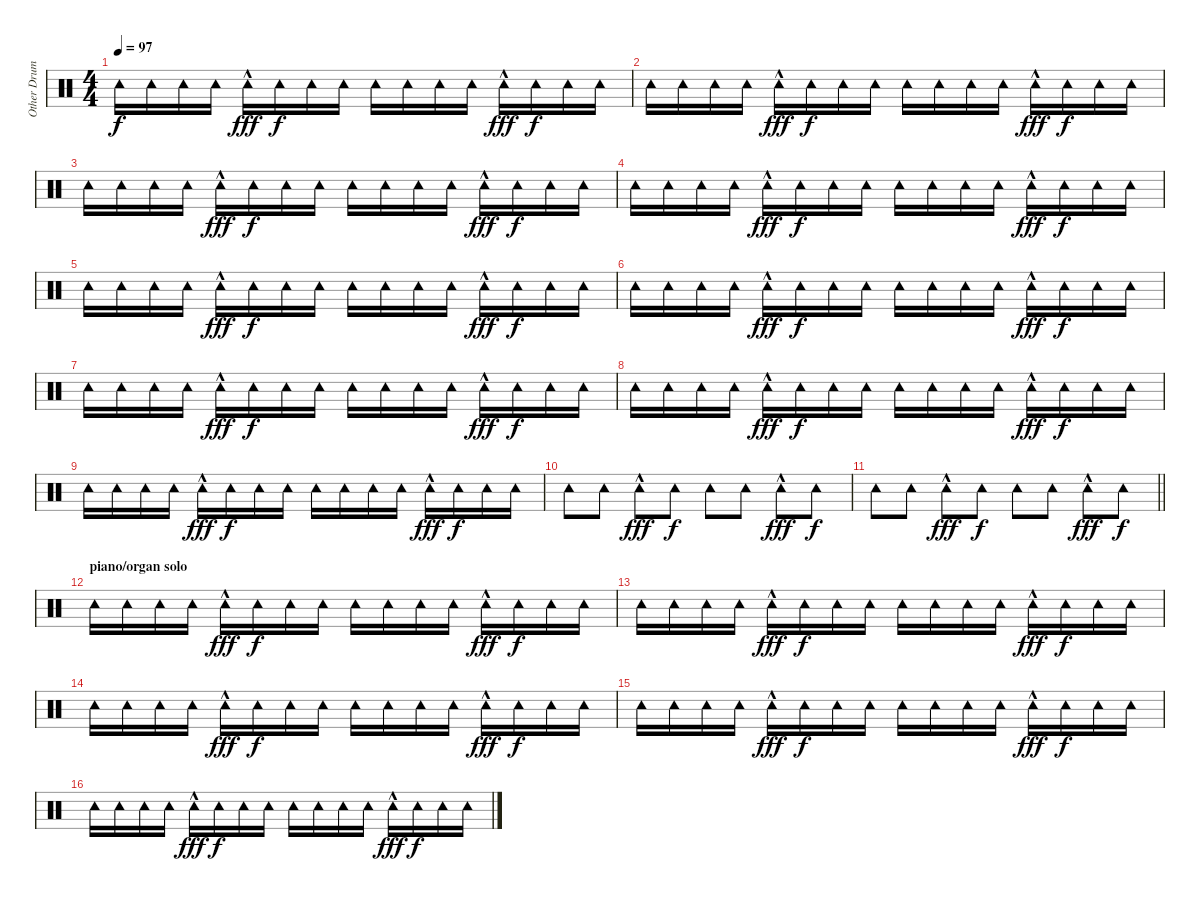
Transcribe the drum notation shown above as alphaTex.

\track ("Other Drumer" "Other Drum") {instrument percussion}
\staff {score}
\articulation defaults
\ts (4 4)
\tempo 97
\clef neutral
\ks c "Tambourine (hit)".16{dy f} "Tambourine (hit)".16 "Tambourine (hit)".16 "Tambourine (hit)".16 "Tambourine (hit)"{hac}.16{dy fff} "Tambourine (hit)".16{dy f} "Tambourine (hit)".16 "Tambourine (hit)".16 "Tambourine (hit)".16 "Tambourine (hit)".16 "Tambourine (hit)".16 "Tambourine (hit)".16 "Tambourine (hit)"{hac}.16{dy fff} "Tambourine (hit)".16{dy f} "Tambourine (hit)".16 "Tambourine (hit)".16
|
"Tambourine (hit)".16 "Tambourine (hit)".16 "Tambourine (hit)".16 "Tambourine (hit)".16 "Tambourine (hit)"{hac}.16{dy fff} "Tambourine (hit)".16{dy f} "Tambourine (hit)".16 "Tambourine (hit)".16 "Tambourine (hit)".16 "Tambourine (hit)".16 "Tambourine (hit)".16 "Tambourine (hit)".16 "Tambourine (hit)"{hac}.16{dy fff} "Tambourine (hit)".16{dy f} "Tambourine (hit)".16 "Tambourine (hit)".16 |
"Tambourine (hit)".16 "Tambourine (hit)".16 "Tambourine (hit)".16 "Tambourine (hit)".16 "Tambourine (hit)"{hac}.16{dy fff} "Tambourine (hit)".16{dy f} "Tambourine (hit)".16 "Tambourine (hit)".16 "Tambourine (hit)".16 "Tambourine (hit)".16 "Tambourine (hit)".16 "Tambourine (hit)".16 "Tambourine (hit)"{hac}.16{dy fff} "Tambourine (hit)".16{dy f} "Tambourine (hit)".16 "Tambourine (hit)".16 |
"Tambourine (hit)".16 "Tambourine (hit)".16 "Tambourine (hit)".16 "Tambourine (hit)".16 "Tambourine (hit)"{hac}.16{dy fff} "Tambourine (hit)".16{dy f} "Tambourine (hit)".16 "Tambourine (hit)".16 "Tambourine (hit)".16 "Tambourine (hit)".16 "Tambourine (hit)".16 "Tambourine (hit)".16 "Tambourine (hit)"{hac}.16{dy fff} "Tambourine (hit)".16{dy f} "Tambourine (hit)".16 "Tambourine (hit)".16 |
"Tambourine (hit)".16 "Tambourine (hit)".16 "Tambourine (hit)".16 "Tambourine (hit)".16 "Tambourine (hit)"{hac}.16{dy fff} "Tambourine (hit)".16{dy f} "Tambourine (hit)".16 "Tambourine (hit)".16 "Tambourine (hit)".16 "Tambourine (hit)".16 "Tambourine (hit)".16 "Tambourine (hit)".16 "Tambourine (hit)"{hac}.16{dy fff} "Tambourine (hit)".16{dy f} "Tambourine (hit)".16 "Tambourine (hit)".16 |
"Tambourine (hit)".16 "Tambourine (hit)".16 "Tambourine (hit)".16 "Tambourine (hit)".16 "Tambourine (hit)"{hac}.16{dy fff} "Tambourine (hit)".16{dy f} "Tambourine (hit)".16 "Tambourine (hit)".16 "Tambourine (hit)".16 "Tambourine (hit)".16 "Tambourine (hit)".16 "Tambourine (hit)".16 "Tambourine (hit)"{hac}.16{dy fff} "Tambourine (hit)".16{dy f} "Tambourine (hit)".16 "Tambourine (hit)".16 |
"Tambourine (hit)".16 "Tambourine (hit)".16 "Tambourine (hit)".16 "Tambourine (hit)".16 "Tambourine (hit)"{hac}.16{dy fff} "Tambourine (hit)".16{dy f} "Tambourine (hit)".16 "Tambourine (hit)".16 "Tambourine (hit)".16 "Tambourine (hit)".16 "Tambourine (hit)".16 "Tambourine (hit)".16 "Tambourine (hit)"{hac}.16{dy fff} "Tambourine (hit)".16{dy f} "Tambourine (hit)".16 "Tambourine (hit)".16 |
"Tambourine (hit)".16 "Tambourine (hit)".16 "Tambourine (hit)".16 "Tambourine (hit)".16 "Tambourine (hit)"{hac}.16{dy fff} "Tambourine (hit)".16{dy f} "Tambourine (hit)".16 "Tambourine (hit)".16 "Tambourine (hit)".16 "Tambourine (hit)".16 "Tambourine (hit)".16 "Tambourine (hit)".16 "Tambourine (hit)"{hac}.16{dy fff} "Tambourine (hit)".16{dy f} "Tambourine (hit)".16 "Tambourine (hit)".16 |
"Tambourine (hit)".16 "Tambourine (hit)".16 "Tambourine (hit)".16 "Tambourine (hit)".16 "Tambourine (hit)"{hac}.16{dy fff} "Tambourine (hit)".16{dy f} "Tambourine (hit)".16 "Tambourine (hit)".16 "Tambourine (hit)".16 "Tambourine (hit)".16 "Tambourine (hit)".16 "Tambourine (hit)".16 "Tambourine (hit)"{hac}.16{dy fff} "Tambourine (hit)".16{dy f} "Tambourine (hit)".16 "Tambourine (hit)".16 |
"Tambourine (hit)".8 "Tambourine (hit)".8 "Tambourine (hit)"{hac}.8{dy fff} "Tambourine (hit)".8{dy f} "Tambourine (hit)".8 "Tambourine (hit)".8 "Tambourine (hit)"{hac}.8{dy fff} "Tambourine (hit)".8{dy f} |
\barLineRight lightlight "Tambourine (hit)".8 "Tambourine (hit)".8 "Tambourine (hit)"{hac}.8{dy fff} "Tambourine (hit)".8{dy f} "Tambourine (hit)".8 "Tambourine (hit)".8 "Tambourine (hit)"{hac}.8{dy fff} "Tambourine (hit)".8{dy f}
|
\section ("" "piano/organ solo")
"Tambourine (hit)".16 "Tambourine (hit)".16 "Tambourine (hit)".16 "Tambourine (hit)".16 "Tambourine (hit)"{hac}.16{dy fff} "Tambourine (hit)".16{dy f} "Tambourine (hit)".16 "Tambourine (hit)".16 "Tambourine (hit)".16 "Tambourine (hit)".16 "Tambourine (hit)".16 "Tambourine (hit)".16 "Tambourine (hit)"{hac}.16{dy fff} "Tambourine (hit)".16{dy f} "Tambourine (hit)".16 "Tambourine (hit)".16 |
"Tambourine (hit)".16 "Tambourine (hit)".16 "Tambourine (hit)".16 "Tambourine (hit)".16 "Tambourine (hit)"{hac}.16{dy fff} "Tambourine (hit)".16{dy f} "Tambourine (hit)".16 "Tambourine (hit)".16 "Tambourine (hit)".16 "Tambourine (hit)".16 "Tambourine (hit)".16 "Tambourine (hit)".16 "Tambourine (hit)"{hac}.16{dy fff} "Tambourine (hit)".16{dy f} "Tambourine (hit)".16 "Tambourine (hit)".16 |
"Tambourine (hit)".16 "Tambourine (hit)".16 "Tambourine (hit)".16 "Tambourine (hit)".16 "Tambourine (hit)"{hac}.16{dy fff} "Tambourine (hit)".16{dy f} "Tambourine (hit)".16 "Tambourine (hit)".16 "Tambourine (hit)".16 "Tambourine (hit)".16 "Tambourine (hit)".16 "Tambourine (hit)".16 "Tambourine (hit)"{hac}.16{dy fff} "Tambourine (hit)".16{dy f} "Tambourine (hit)".16 "Tambourine (hit)".16 |
"Tambourine (hit)".16 "Tambourine (hit)".16 "Tambourine (hit)".16 "Tambourine (hit)".16 "Tambourine (hit)"{hac}.16{dy fff} "Tambourine (hit)".16{dy f} "Tambourine (hit)".16 "Tambourine (hit)".16 "Tambourine (hit)".16 "Tambourine (hit)".16 "Tambourine (hit)".16 "Tambourine (hit)".16 "Tambourine (hit)"{hac}.16{dy fff} "Tambourine (hit)".16{dy f} "Tambourine (hit)".16 "Tambourine (hit)".16 |
"Tambourine (hit)".16 "Tambourine (hit)".16 "Tambourine (hit)".16 "Tambourine (hit)".16 "Tambourine (hit)"{hac}.16{dy fff} "Tambourine (hit)".16{dy f} "Tambourine (hit)".16 "Tambourine (hit)".16 "Tambourine (hit)".16 "Tambourine (hit)".16 "Tambourine (hit)".16 "Tambourine (hit)".16 "Tambourine (hit)"{hac}.16{dy fff} "Tambourine (hit)".16{dy f} "Tambourine (hit)".16 "Tambourine (hit)".16
